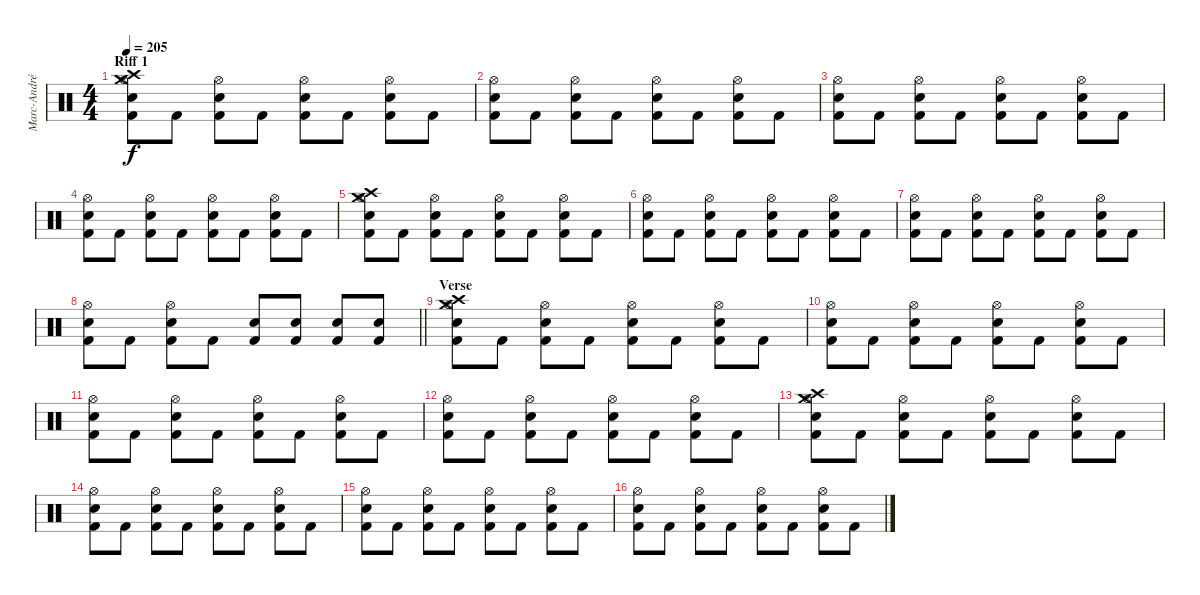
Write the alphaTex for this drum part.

\track ("Marc-André Barabé" "Marc-André") {instrument percussion}
\staff {score}
\articulation defaults
\ts (4 4)
\section ("" "Riff 1")
\tempo 205
\clef neutral
\ks c
("Crash high (hit)" "Crash medium (hit)" "Hi-Hat (open)" "Electric Snare (hit)" "Kick (hit) 2").8{dy f} "Kick (hit) 2".8 ("Hi-Hat (open)" "Electric Snare (hit)" "Kick (hit) 2").8 "Kick (hit) 2".8 ("Hi-Hat (open)" "Electric Snare (hit)" "Kick (hit) 2").8 "Kick (hit) 2".8 ("Hi-Hat (open)" "Electric Snare (hit)" "Kick (hit) 2").8 "Kick (hit) 2".8 |
("Hi-Hat (open)" "Electric Snare (hit)" "Kick (hit) 2").8 "Kick (hit) 2".8 ("Hi-Hat (open)" "Electric Snare (hit)" "Kick (hit) 2").8 "Kick (hit) 2".8 ("Hi-Hat (open)" "Electric Snare (hit)" "Kick (hit) 2").8 "Kick (hit) 2".8 ("Hi-Hat (open)" "Electric Snare (hit)" "Kick (hit) 2").8 "Kick (hit) 2".8 |
("Hi-Hat (open)" "Electric Snare (hit)" "Kick (hit) 2").8 "Kick (hit) 2".8 ("Hi-Hat (open)" "Electric Snare (hit)" "Kick (hit) 2").8 "Kick (hit) 2".8 ("Hi-Hat (open)" "Electric Snare (hit)" "Kick (hit) 2").8 "Kick (hit) 2".8 ("Hi-Hat (open)" "Electric Snare (hit)" "Kick (hit) 2").8 "Kick (hit) 2".8 |
("Hi-Hat (open)" "Electric Snare (hit)" "Kick (hit) 2").8 "Kick (hit) 2".8 ("Hi-Hat (open)" "Electric Snare (hit)" "Kick (hit) 2").8 "Kick (hit) 2".8 ("Hi-Hat (open)" "Electric Snare (hit)" "Kick (hit) 2").8 "Kick (hit) 2".8 ("Hi-Hat (open)" "Electric Snare (hit)" "Kick (hit) 2").8 "Kick (hit) 2".8 |
("Crash high (hit)" "Crash medium (hit)" "Hi-Hat (open)" "Electric Snare (hit)" "Kick (hit) 2").8 "Kick (hit) 2".8 ("Hi-Hat (open)" "Electric Snare (hit)" "Kick (hit) 2").8 "Kick (hit) 2".8 ("Hi-Hat (open)" "Electric Snare (hit)" "Kick (hit) 2").8 "Kick (hit) 2".8 ("Hi-Hat (open)" "Electric Snare (hit)" "Kick (hit) 2").8 "Kick (hit) 2".8 |
("Hi-Hat (open)" "Electric Snare (hit)" "Kick (hit) 2").8 "Kick (hit) 2".8 ("Hi-Hat (open)" "Electric Snare (hit)" "Kick (hit) 2").8 "Kick (hit) 2".8 ("Hi-Hat (open)" "Electric Snare (hit)" "Kick (hit) 2").8 "Kick (hit) 2".8 ("Hi-Hat (open)" "Electric Snare (hit)" "Kick (hit) 2").8 "Kick (hit) 2".8 |
("Hi-Hat (open)" "Electric Snare (hit)" "Kick (hit) 2").8 "Kick (hit) 2".8 ("Hi-Hat (open)" "Electric Snare (hit)" "Kick (hit) 2").8 "Kick (hit) 2".8 ("Hi-Hat (open)" "Electric Snare (hit)" "Kick (hit) 2").8 "Kick (hit) 2".8 ("Hi-Hat (open)" "Electric Snare (hit)" "Kick (hit) 2").8 "Kick (hit) 2".8 |
\barLineRight lightlight
("Hi-Hat (open)" "Electric Snare (hit)" "Kick (hit) 2").8 "Kick (hit) 2".8 ("Hi-Hat (open)" "Electric Snare (hit)" "Kick (hit) 2").8 "Kick (hit) 2".8 ("Electric Snare (hit)"{tr (4 32)} "Kick (hit) 2").8 ("Electric Snare (hit)"{tr (4 32)} "Kick (hit) 2").8 ("Electric Snare (hit)"{tr (4 32)} "Kick (hit) 2").8 ("Electric Snare (hit)"{tr (4 32)} "Kick (hit) 2").8 |
\section ("" "Verse")
("Crash high (hit)" "Crash medium (hit)" "Hi-Hat (open)" "Electric Snare (hit)" "Kick (hit) 2"{tr (36 32)}).8 "Kick (hit) 2"{tr (36 32)}.8 ("Hi-Hat (open)" "Electric Snare (hit)" "Kick (hit) 2"{tr (36 32)}).8 "Kick (hit) 2"{tr (36 32)}.8 ("Hi-Hat (open)" "Electric Snare (hit)" "Kick (hit) 2"{tr (36 32)}).8 "Kick (hit) 2"{tr (36 32)}.8 ("Hi-Hat (open)" "Electric Snare (hit)" "Kick (hit) 2"{tr (36 32)}).8 "Kick (hit) 2"{tr (36 32)}.8 |
("Hi-Hat (open)" "Electric Snare (hit)" "Kick (hit) 2"{tr (36 32)}).8 "Kick (hit) 2"{tr (36 32)}.8 ("Hi-Hat (open)" "Electric Snare (hit)" "Kick (hit) 2"{tr (36 32)}).8 "Kick (hit) 2"{tr (36 32)}.8 ("Hi-Hat (open)" "Electric Snare (hit)" "Kick (hit) 2"{tr (36 32)}).8 "Kick (hit) 2"{tr (36 32)}.8 ("Hi-Hat (open)" "Electric Snare (hit)" "Kick (hit) 2"{tr (36 32)}).8 "Kick (hit) 2"{tr (36 32)}.8 |
("Hi-Hat (open)" "Electric Snare (hit)" "Kick (hit) 2"{tr (36 32)}).8 "Kick (hit) 2"{tr (36 32)}.8 ("Hi-Hat (open)" "Electric Snare (hit)" "Kick (hit) 2"{tr (36 32)}).8 "Kick (hit) 2"{tr (36 32)}.8 ("Hi-Hat (open)" "Electric Snare (hit)" "Kick (hit) 2"{tr (36 32)}).8 "Kick (hit) 2"{tr (36 32)}.8 ("Hi-Hat (open)" "Electric Snare (hit)" "Kick (hit) 2"{tr (36 32)}).8 "Kick (hit) 2"{tr (36 32)}.8 |
("Hi-Hat (open)" "Electric Snare (hit)" "Kick (hit) 2"{tr (36 32)}).8 "Kick (hit) 2"{tr (36 32)}.8 ("Hi-Hat (open)" "Electric Snare (hit)" "Kick (hit) 2"{tr (36 32)}).8 "Kick (hit) 2"{tr (36 32)}.8 ("Hi-Hat (open)" "Electric Snare (hit)" "Kick (hit) 2"{tr (36 32)}).8 "Kick (hit) 2"{tr (36 32)}.8 ("Hi-Hat (open)" "Electric Snare (hit)" "Kick (hit) 2"{tr (36 32)}).8 "Kick (hit) 2"{tr (36 32)}.8 |
("Crash high (hit)" "Crash medium (hit)" "Hi-Hat (open)" "Electric Snare (hit)" "Kick (hit) 2"{tr (36 32)}).8 "Kick (hit) 2"{tr (36 32)}.8 ("Hi-Hat (open)" "Electric Snare (hit)" "Kick (hit) 2"{tr (36 32)}).8 "Kick (hit) 2"{tr (36 32)}.8 ("Hi-Hat (open)" "Electric Snare (hit)" "Kick (hit) 2"{tr (36 32)}).8 "Kick (hit) 2"{tr (36 32)}.8 ("Hi-Hat (open)" "Electric Snare (hit)" "Kick (hit) 2"{tr (36 32)}).8 "Kick (hit) 2"{tr (36 32)}.8 |
("Hi-Hat (open)" "Electric Snare (hit)" "Kick (hit) 2"{tr (36 32)}).8 "Kick (hit) 2"{tr (36 32)}.8 ("Hi-Hat (open)" "Electric Snare (hit)" "Kick (hit) 2"{tr (36 32)}).8 "Kick (hit) 2"{tr (36 32)}.8 ("Hi-Hat (open)" "Electric Snare (hit)" "Kick (hit) 2"{tr (36 32)}).8 "Kick (hit) 2"{tr (36 32)}.8 ("Hi-Hat (open)" "Electric Snare (hit)" "Kick (hit) 2"{tr (36 32)}).8 "Kick (hit) 2"{tr (36 32)}.8 |
("Hi-Hat (open)" "Electric Snare (hit)" "Kick (hit) 2"{tr (36 32)}).8 "Kick (hit) 2"{tr (36 32)}.8 ("Hi-Hat (open)" "Electric Snare (hit)" "Kick (hit) 2"{tr (36 32)}).8 "Kick (hit) 2"{tr (36 32)}.8 ("Hi-Hat (open)" "Electric Snare (hit)" "Kick (hit) 2"{tr (36 32)}).8 "Kick (hit) 2"{tr (36 32)}.8 ("Hi-Hat (open)" "Electric Snare (hit)" "Kick (hit) 2"{tr (36 32)}).8 "Kick (hit) 2"{tr (36 32)}.8 |
("Hi-Hat (open)" "Electric Snare (hit)" "Kick (hit) 2"{tr (36 32)}).8 "Kick (hit) 2"{tr (36 32)}.8 ("Hi-Hat (open)" "Electric Snare (hit)" "Kick (hit) 2"{tr (36 32)}).8 "Kick (hit) 2"{tr (36 32)}.8 ("Hi-Hat (open)" "Electric Snare (hit)" "Kick (hit) 2"{tr (36 32)}).8 "Kick (hit) 2"{tr (36 32)}.8 ("Hi-Hat (open)" "Electric Snare (hit)" "Kick (hit) 2"{tr (36 32)}).8 "Kick (hit) 2"{tr (36 32)}.8
